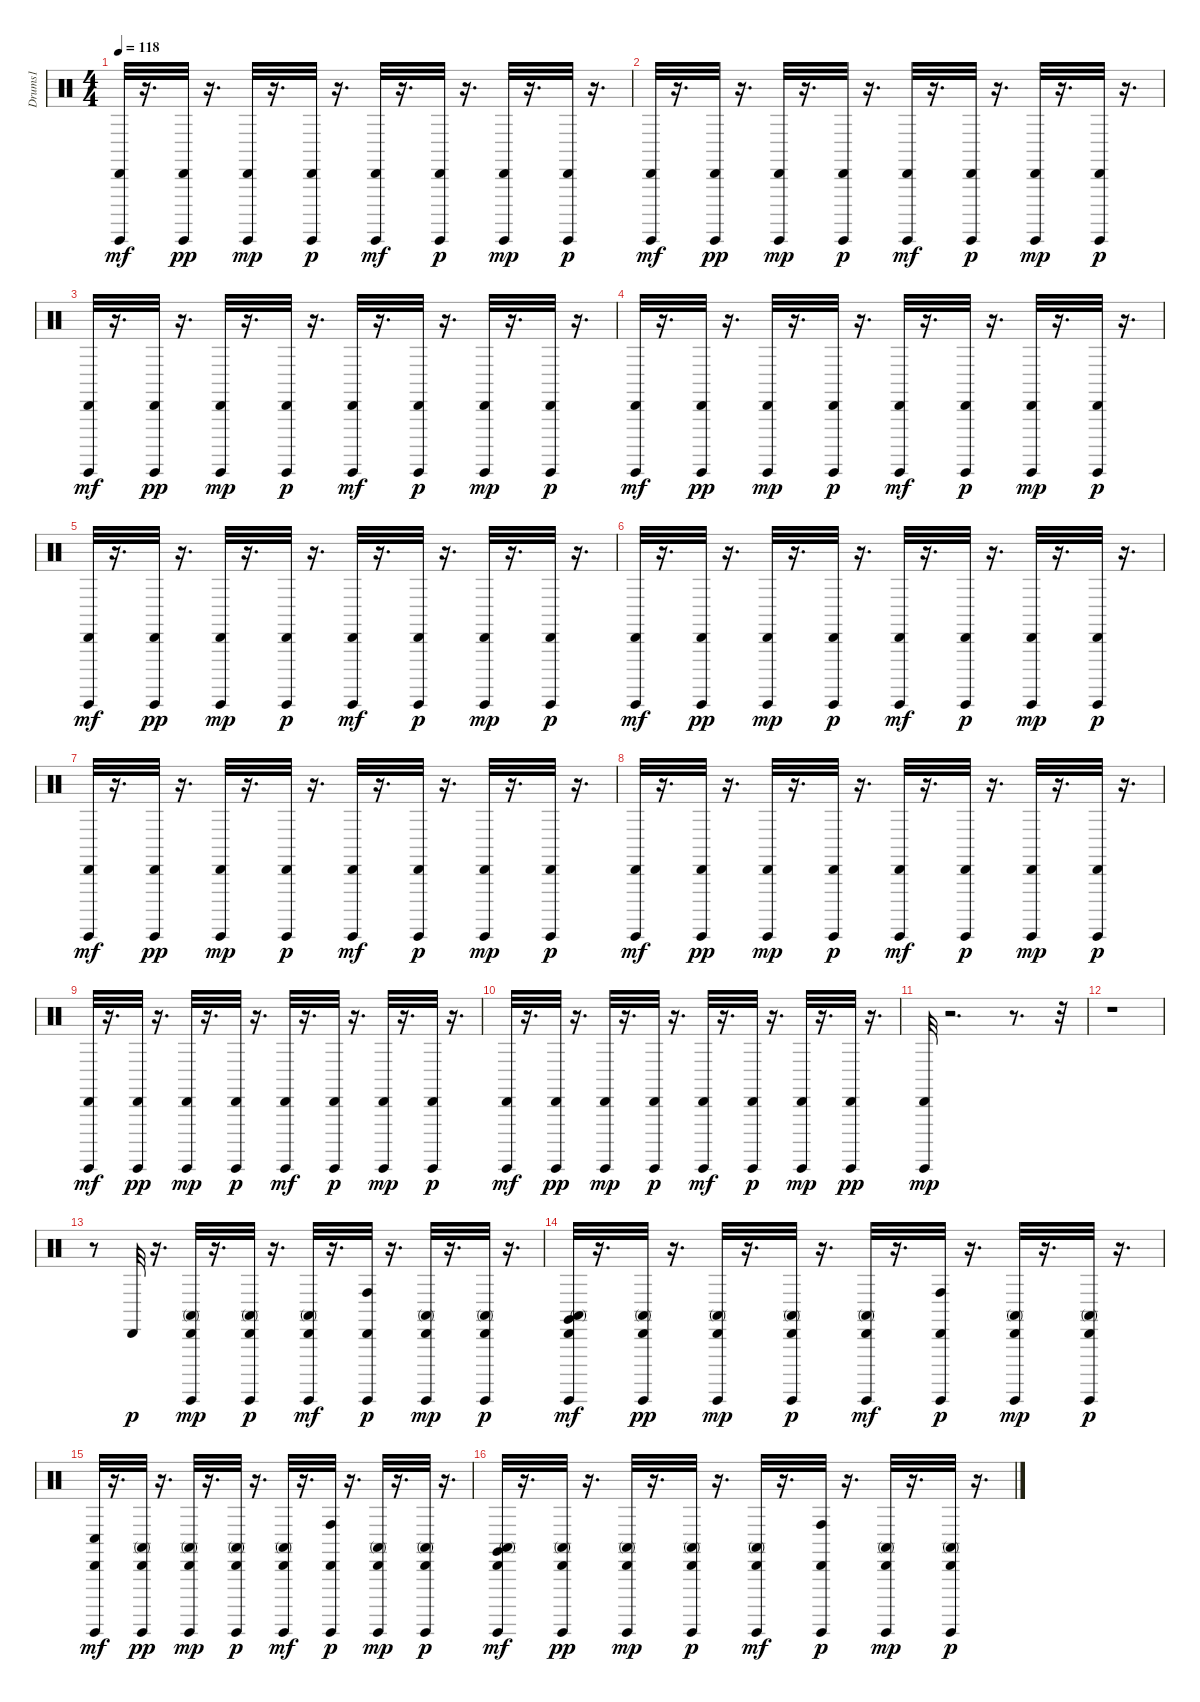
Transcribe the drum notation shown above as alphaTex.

\track ("Drums1" "Drums1") {instrument percussion}
\staff {score}
\articulation defaults
\ts (4 4)
\tempo 118
\clef neutral
\ks c
("Guiro (hit)" "Cabasa (hit)").32{dy mf} r.16{d} ("Guiro (hit)" "Cabasa (hit)").32{dy pp} r.16{d} ("Guiro (hit)" "Cabasa (hit)").32{dy mp} r.16{d} ("Guiro (hit)" "Cabasa (hit)").32{dy p} r.16{d} ("Guiro (hit)" "Cabasa (hit)").32{dy mf} r.16{d} ("Guiro (hit)" "Cabasa (hit)").32{dy p} r.16{d} ("Guiro (hit)" "Cabasa (hit)").32{dy mp} r.16{d} ("Guiro (hit)" "Cabasa (hit)").32{dy p} r.16{d} |
("Guiro (hit)" "Cabasa (hit)").32{dy mf} r.16{d} ("Guiro (hit)" "Cabasa (hit)").32{dy pp} r.16{d} ("Guiro (hit)" "Cabasa (hit)").32{dy mp} r.16{d} ("Guiro (hit)" "Cabasa (hit)").32{dy p} r.16{d} ("Guiro (hit)" "Cabasa (hit)").32{dy mf} r.16{d} ("Guiro (hit)" "Cabasa (hit)").32{dy p} r.16{d} ("Guiro (hit)" "Cabasa (hit)").32{dy mp} r.16{d} ("Guiro (hit)" "Cabasa (hit)").32{dy p} r.16{d} |
("Guiro (hit)" "Cabasa (hit)").32{dy mf} r.16{d} ("Guiro (hit)" "Cabasa (hit)").32{dy pp} r.16{d} ("Guiro (hit)" "Cabasa (hit)").32{dy mp} r.16{d} ("Guiro (hit)" "Cabasa (hit)").32{dy p} r.16{d} ("Guiro (hit)" "Cabasa (hit)").32{dy mf} r.16{d} ("Guiro (hit)" "Cabasa (hit)").32{dy p} r.16{d} ("Guiro (hit)" "Cabasa (hit)").32{dy mp} r.16{d} ("Guiro (hit)" "Cabasa (hit)").32{dy p} r.16{d} |
("Guiro (hit)" "Cabasa (hit)").32{dy mf} r.16{d} ("Guiro (hit)" "Cabasa (hit)").32{dy pp} r.16{d} ("Guiro (hit)" "Cabasa (hit)").32{dy mp} r.16{d} ("Guiro (hit)" "Cabasa (hit)").32{dy p} r.16{d} ("Guiro (hit)" "Cabasa (hit)").32{dy mf} r.16{d} ("Guiro (hit)" "Cabasa (hit)").32{dy p} r.16{d} ("Guiro (hit)" "Cabasa (hit)").32{dy mp} r.16{d} ("Guiro (hit)" "Cabasa (hit)").32{dy p} r.16{d} |
("Guiro (hit)" "Cabasa (hit)").32{dy mf} r.16{d} ("Guiro (hit)" "Cabasa (hit)").32{dy pp} r.16{d} ("Guiro (hit)" "Cabasa (hit)").32{dy mp} r.16{d} ("Guiro (hit)" "Cabasa (hit)").32{dy p} r.16{d} ("Guiro (hit)" "Cabasa (hit)").32{dy mf} r.16{d} ("Guiro (hit)" "Cabasa (hit)").32{dy p} r.16{d} ("Guiro (hit)" "Cabasa (hit)").32{dy mp} r.16{d} ("Guiro (hit)" "Cabasa (hit)").32{dy p} r.16{d} |
("Guiro (hit)" "Cabasa (hit)").32{dy mf} r.16{d} ("Guiro (hit)" "Cabasa (hit)").32{dy pp} r.16{d} ("Guiro (hit)" "Cabasa (hit)").32{dy mp} r.16{d} ("Guiro (hit)" "Cabasa (hit)").32{dy p} r.16{d} ("Guiro (hit)" "Cabasa (hit)").32{dy mf} r.16{d} ("Guiro (hit)" "Cabasa (hit)").32{dy p} r.16{d} ("Guiro (hit)" "Cabasa (hit)").32{dy mp} r.16{d} ("Guiro (hit)" "Cabasa (hit)").32{dy p} r.16{d} |
("Guiro (hit)" "Cabasa (hit)").32{dy mf} r.16{d} ("Guiro (hit)" "Cabasa (hit)").32{dy pp} r.16{d} ("Guiro (hit)" "Cabasa (hit)").32{dy mp} r.16{d} ("Guiro (hit)" "Cabasa (hit)").32{dy p} r.16{d} ("Guiro (hit)" "Cabasa (hit)").32{dy mf} r.16{d} ("Guiro (hit)" "Cabasa (hit)").32{dy p} r.16{d} ("Guiro (hit)" "Cabasa (hit)").32{dy mp} r.16{d} ("Guiro (hit)" "Cabasa (hit)").32{dy p} r.16{d} |
("Guiro (hit)" "Cabasa (hit)").32{dy mf} r.16{d} ("Guiro (hit)" "Cabasa (hit)").32{dy pp} r.16{d} ("Guiro (hit)" "Cabasa (hit)").32{dy mp} r.16{d} ("Guiro (hit)" "Cabasa (hit)").32{dy p} r.16{d} ("Guiro (hit)" "Cabasa (hit)").32{dy mf} r.16{d} ("Guiro (hit)" "Cabasa (hit)").32{dy p} r.16{d} ("Guiro (hit)" "Cabasa (hit)").32{dy mp} r.16{d} ("Guiro (hit)" "Cabasa (hit)").32{dy p} r.16{d} |
("Guiro (hit)" "Cabasa (hit)").32{dy mf} r.16{d} ("Guiro (hit)" "Cabasa (hit)").32{dy pp} r.16{d} ("Guiro (hit)" "Cabasa (hit)").32{dy mp} r.16{d} ("Guiro (hit)" "Cabasa (hit)").32{dy p} r.16{d} ("Guiro (hit)" "Cabasa (hit)").32{dy mf} r.16{d} ("Guiro (hit)" "Cabasa (hit)").32{dy p} r.16{d} ("Guiro (hit)" "Cabasa (hit)").32{dy mp} r.16{d} ("Guiro (hit)" "Cabasa (hit)").32{dy p} r.16{d} |
("Guiro (hit)" "Cabasa (hit)").32{dy mf} r.16{d} ("Guiro (hit)" "Cabasa (hit)").32{dy pp} r.16{d} ("Guiro (hit)" "Cabasa (hit)").32{dy mp} r.16{d} ("Guiro (hit)" "Cabasa (hit)").32{dy p} r.16{d} ("Guiro (hit)" "Cabasa (hit)").32{dy mf} r.16{d} ("Guiro (hit)" "Cabasa (hit)").32{dy p} r.16{d} ("Guiro (hit)" "Cabasa (hit)").32{dy mp} r.16{d} ("Guiro (hit)" "Cabasa (hit)").32{dy pp} r.16{d} |
("Guiro (hit)" "Cabasa (hit)").32{dy mp} r.2{d} r.8{d} r.32 |
r.1 |
r.8 "Cabasa (hit)".32{dy p} r.16{d} ("Conga high (mute)" "Guiro (hit)" "Cabasa (hit)").32{dy mp} r.16{d} ("Conga high (mute)" "Guiro (hit)" "Cabasa (hit)").32{dy p} r.16{d} ("Conga high (mute)" "Guiro (hit)" "Cabasa (hit)").32{dy mf} r.16{d} ("Conga high (hit)" "Guiro (hit)" "Cabasa (hit)").32{dy p} r.16{d} ("Conga high (mute)" "Guiro (hit)" "Cabasa (hit)").32{dy mp} r.16{d} ("Conga high (mute)" "Guiro (hit)" "Cabasa (hit)").32{dy p} r.16{d} |
("Conga high (mute)" "Claves (hit)" "Guiro (hit)" "Cabasa (hit)").32{dy mf} r.16{d} ("Conga high (mute)" "Guiro (hit)" "Cabasa (hit)").32{dy pp} r.16{d} ("Conga high (mute)" "Guiro (hit)" "Cabasa (hit)").32{dy mp} r.16{d} ("Conga high (mute)" "Guiro (hit)" "Cabasa (hit)").32{dy p} r.16{d} ("Conga high (mute)" "Guiro (hit)" "Cabasa (hit)").32{dy mf} r.16{d} ("Conga high (hit)" "Guiro (hit)" "Cabasa (hit)").32{dy p} r.16{d} ("Conga high (mute)" "Guiro (hit)" "Cabasa (hit)").32{dy mp} r.16{d} ("Conga high (mute)" "Guiro (hit)" "Cabasa (hit)").32{dy p} r.16{d} |
("Conga low (hit)" "Guiro (hit)" "Cabasa (hit)").32{dy mf} r.16{d} ("Conga high (mute)" "Guiro (hit)" "Cabasa (hit)").32{dy pp} r.16{d} ("Conga high (mute)" "Guiro (hit)" "Cabasa (hit)").32{dy mp} r.16{d} ("Conga high (mute)" "Guiro (hit)" "Cabasa (hit)").32{dy p} r.16{d} ("Conga high (mute)" "Guiro (hit)" "Cabasa (hit)").32{dy mf} r.16{d} ("Conga high (hit)" "Guiro (hit)" "Cabasa (hit)").32{dy p} r.16{d} ("Conga high (mute)" "Guiro (hit)" "Cabasa (hit)").32{dy mp} r.16{d} ("Conga high (mute)" "Guiro (hit)" "Cabasa (hit)").32{dy p} r.16{d} |
("Conga high (mute)" "Claves (hit)" "Guiro (hit)" "Cabasa (hit)").32{dy mf} r.16{d} ("Conga high (mute)" "Guiro (hit)" "Cabasa (hit)").32{dy pp} r.16{d} ("Conga high (mute)" "Guiro (hit)" "Cabasa (hit)").32{dy mp} r.16{d} ("Conga high (mute)" "Guiro (hit)" "Cabasa (hit)").32{dy p} r.16{d} ("Conga high (mute)" "Guiro (hit)" "Cabasa (hit)").32{dy mf} r.16{d} ("Conga high (hit)" "Guiro (hit)" "Cabasa (hit)").32{dy p} r.16{d} ("Conga high (mute)" "Guiro (hit)" "Cabasa (hit)").32{dy mp} r.16{d} ("Conga high (mute)" "Guiro (hit)" "Cabasa (hit)").32{dy p} r.16{d}
